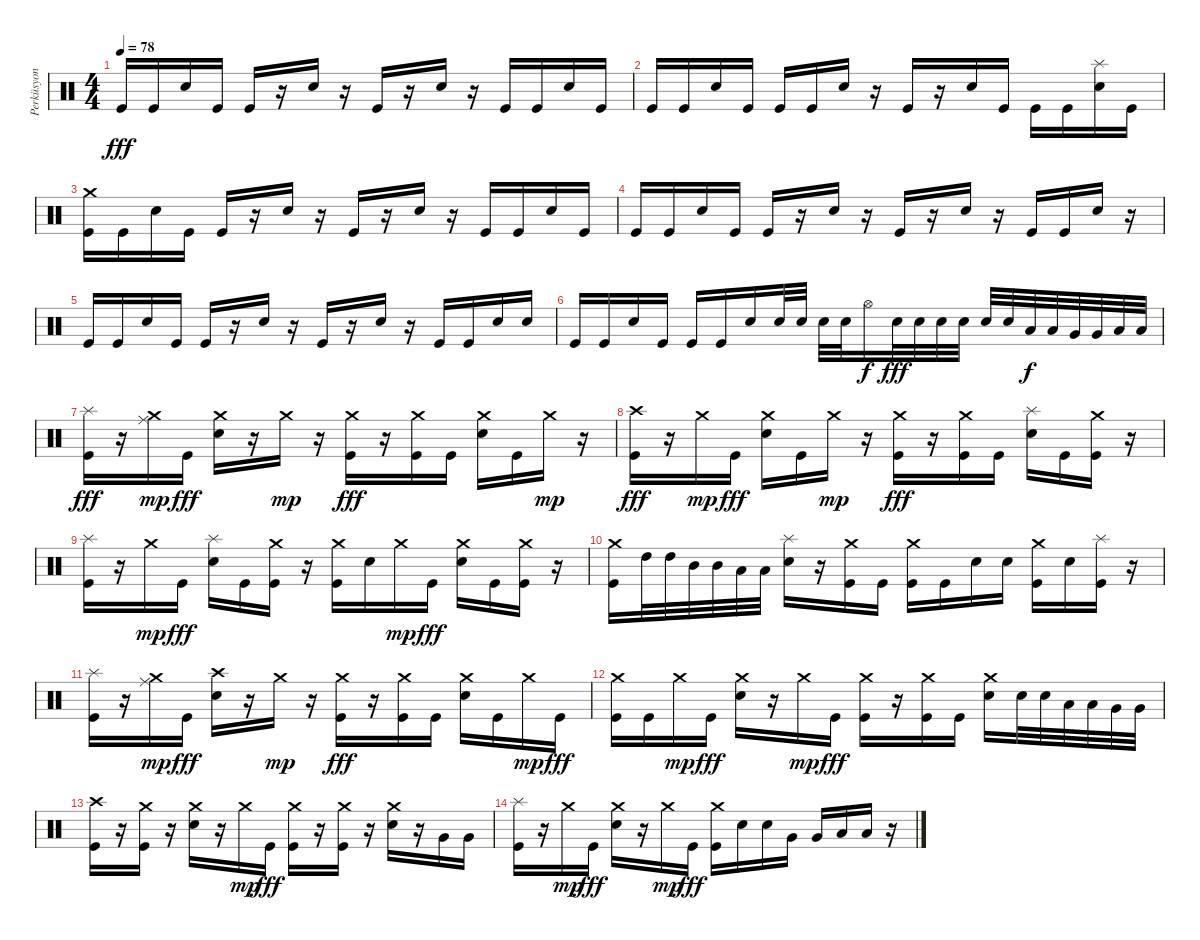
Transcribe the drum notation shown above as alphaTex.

\track ("Perküsyon" "Perküsyon") {instrument percussion}
\staff {score}
\articulation defaults
\ts (4 4)
\tempo 78
\clef neutral
\ks c "Kick (hit)".16{dy fff} "Kick (hit)".16 "Electric Snare (hit)".16 "Kick (hit)".16 "Kick (hit)".16
r.16 "Electric Snare (hit)".16 r.16 "Kick (hit)".16 r.16 "Electric Snare (hit)".16 r.16 "Kick (hit)".16 "Kick (hit)".16 "Electric Snare (hit)".16 "Kick (hit)".16 |
"Kick (hit)".16 "Kick (hit)".16 "Electric Snare (hit)".16 "Kick (hit)".16 "Kick (hit)".16 "Kick (hit)".16 "Electric Snare (hit)".16 r.16 "Kick (hit)".16 r.16 "Electric Snare (hit)".16 "Kick (hit)".16 "Kick (hit)".16 "Kick (hit)".16 ("Electric Snare (hit)" "Splash (hit)").16 "Kick (hit)".16 |
("Kick (hit)" "Crash medium (hit)").16 "Kick (hit)".16 "Electric Snare (hit)".16 "Kick (hit)".16 "Kick (hit)".16 r.16 "Electric Snare (hit)".16 r.16 "Kick (hit)".16 r.16 "Electric Snare (hit)".16 r.16 "Kick (hit)".16 "Kick (hit)".16 "Electric Snare (hit)".16 "Kick (hit)".16 |
"Kick (hit)".16 "Kick (hit)".16 "Electric Snare (hit)".16 "Kick (hit)".16 "Kick (hit)".16 r.16 "Electric Snare (hit)".16 r.16 "Kick (hit)".16 r.16 "Electric Snare (hit)".16 r.16 "Kick (hit)".16 "Kick (hit)".16 "Electric Snare (hit)".16 r.16 |
"Kick (hit)".16 "Kick (hit)".16 "Electric Snare (hit)".16 "Kick (hit)".16 "Kick (hit)".16 r.16 "Electric Snare (hit)".16 r.16 "Kick (hit)".16 r.16 "Electric Snare (hit)".16 r.16 "Kick (hit)".16 "Kick (hit)".16 "Electric Snare (hit)".16 "Electric Snare (hit)".16 |
"Kick (hit)".16 "Kick (hit)".16 "Electric Snare (hit)".16 "Kick (hit)".16 "Kick (hit)".16 "Kick (hit)".16 "Electric Snare (hit)".16 "Electric Snare (hit)".32 "Electric Snare (hit)".32 "Electric Snare (hit)".32 "Electric Snare (hit)".32 "Hi-Hat (open)".16{dy f} "Electric Snare (hit)".32{dy fff} "Electric Snare (hit)".32 "Electric Snare (hit)".32 "Electric Snare (hit)".32 "Electric Snare (hit)".32 "Electric Snare (hit)".32 "Low Tom (hit)".32{dy f} "Low Tom (hit)".32 "Very Low Tom (hit)".32 "Very Low Tom (hit)".32 "Low Floor Tom (hit)".32 "Low Floor Tom (hit)".32 |
("Kick (hit)" "Splash (hit)").16{dy fff} r.16 ("Crash medium (hit)" "Ride (middle)").16{dy mp} "Kick (hit)".16{dy fff} ("Crash medium (hit)" "Electric Snare (hit)").16 r.16 "Crash medium (hit)".16{dy mp} r.16 ("Crash medium (hit)" "Kick (hit)").16{dy fff} r.16 ("Crash medium (hit)" "Kick (hit)").16 "Kick (hit)".16 ("Crash medium (hit)" "Electric Snare (hit)").16 "Kick (hit)".16 "Crash medium (hit)".16{dy mp} r.16 |
("Kick (hit)" "Crash high (hit)").16{dy fff} r.16 "Crash medium (hit)".16{dy mp} "Kick (hit)".16{dy fff} ("Crash medium (hit)" "Electric Snare (hit)").16 "Kick (hit)".16 "Crash medium (hit)".16{dy mp} r.16 ("Crash medium (hit)" "Kick (hit)").16{dy fff} r.16 ("Crash medium (hit)" "Kick (hit)").16 "Kick (hit)".16 ("Electric Snare (hit)" "Splash (hit)").16 "Kick (hit)".16 ("Crash medium (hit)" "Kick (hit)").16 r.16 |
("Kick (hit)" "Splash (hit)").16 r.16 "Crash medium (hit)".16{dy mp} "Kick (hit)".16{dy fff} ("Electric Snare (hit)" "Splash (hit)").16 "Kick (hit)".16 ("Crash medium (hit)" "Kick (hit)").16 r.16 ("Crash medium (hit)" "Kick (hit)").16 "Electric Snare (hit)".16 "Crash medium (hit)".16{dy mp} "Kick (hit)".16{dy fff} ("Crash medium (hit)" "Electric Snare (hit)").16 "Kick (hit)".16 ("Crash medium (hit)" "Kick (hit)").16 r.16 |
("Crash medium (hit)" "Kick (hit)").16 "High Tom (hit)".32 "High Tom (hit)".32 "Mid Tom (hit)".32 "Mid Tom (hit)".32 "Low Tom (hit)".32 "Low Tom (hit)".32 ("Electric Snare (hit)" "Splash (hit)").16 r.16 ("Crash medium (hit)" "Kick (hit)").16 "Kick (hit)".16 ("Crash medium (hit)" "Kick (hit)").16 "Kick (hit)".16 "Electric Snare (hit)".16 "Electric Snare (hit)".16 ("Crash medium (hit)" "Kick (hit)").16 "Electric Snare (hit)".16 ("Kick (hit)" "Splash (hit)").16 r.16 |
("Kick (hit)" "Splash (hit)").16 r.16 ("Crash medium (hit)" "Ride (middle)").16{dy mp} "Kick (hit)".16{dy fff} ("Electric Snare (hit)" "Crash high (hit)").16 r.16 "Crash medium (hit)".16{dy mp} r.16 ("Crash medium (hit)" "Kick (hit)").16{dy fff} r.16 ("Crash medium (hit)" "Kick (hit)").16 "Kick (hit)".16 ("Crash medium (hit)" "Electric Snare (hit)").16 "Kick (hit)".16 "Crash medium (hit)".16{dy mp} "Kick (hit)".16{dy fff} |
("Crash medium (hit)" "Kick (hit)").16 "Kick (hit)".16 "Crash medium (hit)".16{dy mp} "Kick (hit)".16{dy fff} ("Crash medium (hit)" "Electric Snare (hit)").16 r.16 "Crash medium (hit)".16{dy mp} "Kick (hit)".16{dy fff} ("Crash medium (hit)" "Kick (hit)").16 r.16 ("Crash medium (hit)" "Kick (hit)").16 "Kick (hit)".16 ("Crash medium (hit)" "Electric Snare (hit)").16 "Electric Snare (hit)".32 "Electric Snare (hit)".32 "Low Tom (hit)".32 "Low Tom (hit)".32 "Very Low Tom (hit)".32 "Very Low Tom (hit)".32 |
("Kick (hit)" "Crash high (hit)").16 r.16 ("Crash medium (hit)" "Kick (hit)").16 r.16 ("Crash medium (hit)" "Electric Snare (hit)").16 r.16 "Crash medium (hit)".16{dy mp} "Kick (hit)".16{dy fff} ("Crash medium (hit)" "Kick (hit)").16 r.16 ("Crash medium (hit)" "Kick (hit)").16 r.16 ("Crash medium (hit)" "Electric Snare (hit)").16 r.16 "Very Low Tom (hit)".16 "Very Low Tom (hit)".16 |
("Kick (hit)" "Splash (hit)").16 r.16 "Crash medium (hit)".16{dy mp} "Kick (hit)".16{dy fff} ("Crash medium (hit)" "Electric Snare (hit)").16 r.16 "Crash medium (hit)".16{dy mp} "Kick (hit)".16{dy fff} ("Crash medium (hit)" "Kick (hit)").16 "Electric Snare (hit)".16 "Electric Snare (hit)".16 "Very Low Tom (hit)".16 "Very Low Tom (hit)".16 "Low Floor Tom (hit)".16 "Low Floor Tom (hit)".16 r.16
